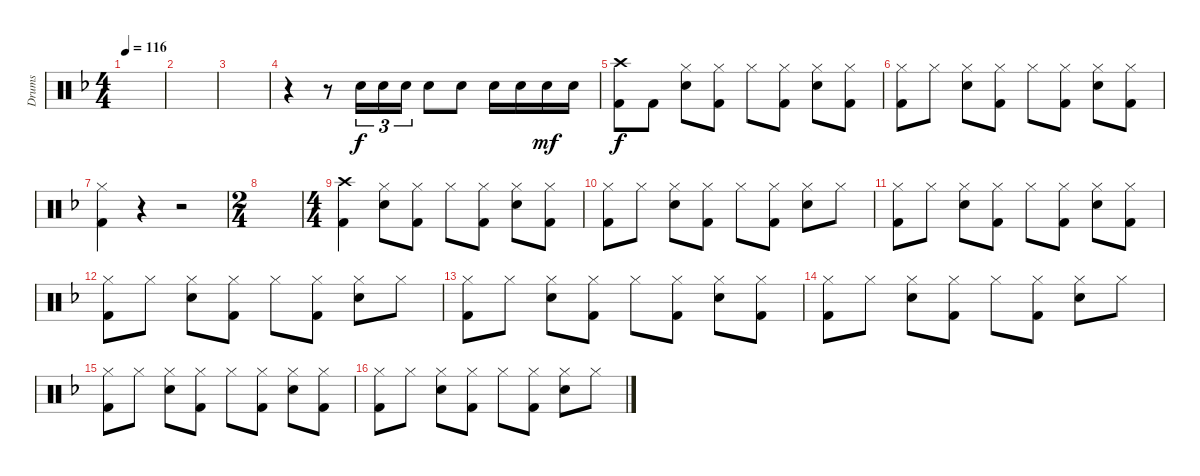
\track ("Drums" "Drums") {instrument percussion}
\staff {score}
\articulation defaults
\ts (4 4)
\tempo 116
\clef neutral
\ks dminor
|
|
|
r.4 r.8 "Electric Snare (hit)".16{tu (3 2)} "Electric Snare (hit)".16{tu (3 2)} "Electric Snare (hit)".16{tu (3 2)} "Electric Snare (hit)".8 "Electric Snare (hit)".8 "Electric Snare (hit)".16 "Electric Snare (hit)".16 "Electric Snare (hit)".16{dy mf} "Electric Snare (hit)".16 |
("Crash high (hit)" "Kick (hit) 2").8{dy f} "Kick (hit) 2".8 ("Hi-Hat (closed)" "Electric Snare (hit)").8 ("Hi-Hat (closed)" "Kick (hit) 2").8 "Hi-Hat (closed)".8 ("Hi-Hat (closed)" "Kick (hit) 2").8 ("Hi-Hat (closed)" "Electric Snare (hit)").8 ("Hi-Hat (closed)" "Kick (hit) 2").8 |
("Hi-Hat (closed)" "Kick (hit) 2").8 "Hi-Hat (closed)".8 ("Hi-Hat (closed)" "Electric Snare (hit)").8 ("Hi-Hat (closed)" "Kick (hit) 2").8 "Hi-Hat (closed)".8 ("Hi-Hat (closed)" "Kick (hit) 2").8 ("Hi-Hat (closed)" "Electric Snare (hit)").8 ("Hi-Hat (closed)" "Kick (hit) 2").8 |
("Hi-Hat (closed)" "Kick (hit) 2").4 r.4 r.2 |
\ts (2 4)
|
\ts (4 4)
("Crash high (hit)" "Kick (hit) 2").4 ("Hi-Hat (closed)" "Electric Snare (hit)").8 ("Hi-Hat (closed)" "Kick (hit) 2").8 "Hi-Hat (closed)".8 ("Hi-Hat (closed)" "Kick (hit) 2").8 ("Hi-Hat (closed)" "Electric Snare (hit)").8 ("Hi-Hat (closed)" "Kick (hit) 2").8 |
("Hi-Hat (closed)" "Kick (hit) 2").8 "Hi-Hat (closed)".8 ("Hi-Hat (closed)" "Electric Snare (hit)").8 ("Hi-Hat (closed)" "Kick (hit) 2").8 "Hi-Hat (closed)".8 ("Hi-Hat (closed)" "Kick (hit) 2").8 ("Hi-Hat (closed)" "Electric Snare (hit)").8 "Hi-Hat (closed)".8 |
("Hi-Hat (closed)" "Kick (hit) 2").8 "Hi-Hat (closed)".8 ("Hi-Hat (closed)" "Electric Snare (hit)").8 ("Hi-Hat (closed)" "Kick (hit) 2").8 "Hi-Hat (closed)".8 ("Hi-Hat (closed)" "Kick (hit) 2").8 ("Hi-Hat (closed)" "Electric Snare (hit)").8 ("Hi-Hat (closed)" "Kick (hit) 2").8 |
("Hi-Hat (closed)" "Kick (hit) 2").8 "Hi-Hat (closed)".8 ("Hi-Hat (closed)" "Electric Snare (hit)").8 ("Hi-Hat (closed)" "Kick (hit) 2").8 "Hi-Hat (closed)".8 ("Hi-Hat (closed)" "Kick (hit) 2").8 ("Hi-Hat (closed)" "Electric Snare (hit)").8 "Hi-Hat (closed)".8 |
("Hi-Hat (closed)" "Kick (hit) 2").8 "Hi-Hat (closed)".8 ("Hi-Hat (closed)" "Electric Snare (hit)").8 ("Hi-Hat (closed)" "Kick (hit) 2").8 "Hi-Hat (closed)".8 ("Hi-Hat (closed)" "Kick (hit) 2").8 ("Hi-Hat (closed)" "Electric Snare (hit)").8 ("Hi-Hat (closed)" "Kick (hit) 2").8 |
("Hi-Hat (closed)" "Kick (hit) 2").8 "Hi-Hat (closed)".8 ("Hi-Hat (closed)" "Electric Snare (hit)").8 ("Hi-Hat (closed)" "Kick (hit) 2").8 "Hi-Hat (closed)".8 ("Hi-Hat (closed)" "Kick (hit) 2").8 ("Hi-Hat (closed)" "Electric Snare (hit)").8 "Hi-Hat (closed)".8 |
("Hi-Hat (closed)" "Kick (hit) 2").8 "Hi-Hat (closed)".8 ("Hi-Hat (closed)" "Electric Snare (hit)").8 ("Hi-Hat (closed)" "Kick (hit) 2").8 "Hi-Hat (closed)".8 ("Hi-Hat (closed)" "Kick (hit) 2").8 ("Hi-Hat (closed)" "Electric Snare (hit)").8 ("Hi-Hat (closed)" "Kick (hit) 2").8 |
("Hi-Hat (closed)" "Kick (hit) 2").8 "Hi-Hat (closed)".8 ("Hi-Hat (closed)" "Electric Snare (hit)").8 ("Hi-Hat (closed)" "Kick (hit) 2").8 "Hi-Hat (closed)".8 ("Hi-Hat (closed)" "Kick (hit) 2").8 ("Hi-Hat (closed)" "Electric Snare (hit)").8 "Hi-Hat (closed)".8
